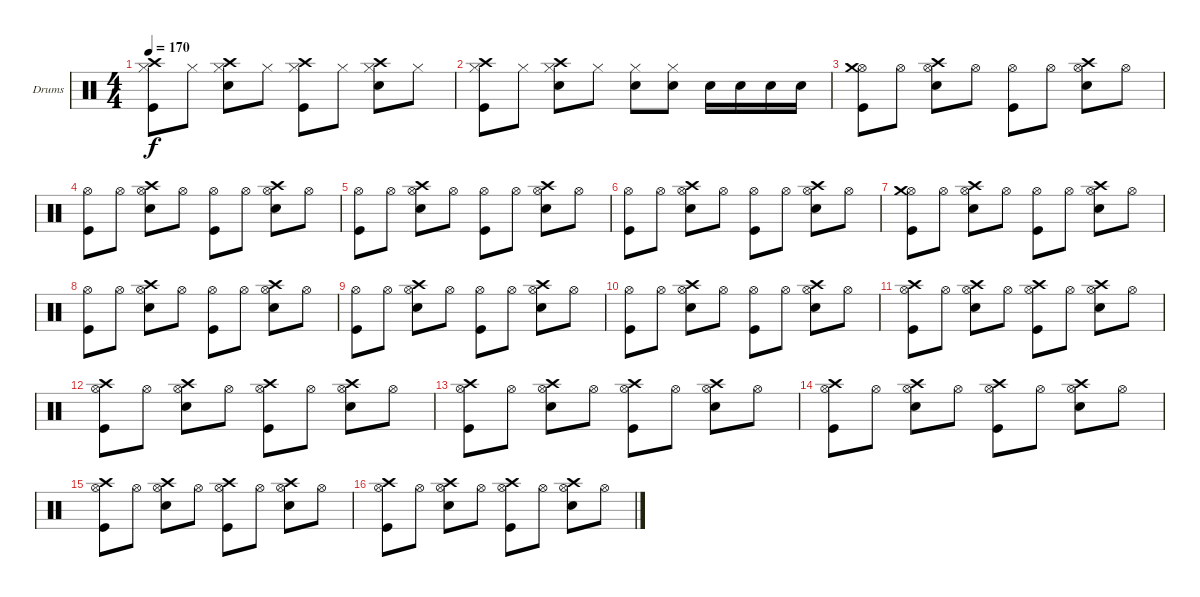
\defaultSystemsLayout 4
\bracketExtendMode groupsimilarinstruments
\firstSystemTrackNameOrientation horizontal
\otherSystemsTrackNameOrientation horizontal
\track ("Барабаны" "Drums") {instrument percussion}
\staff {score}
\articulation defaults
\ts (4 4)
\tempo 170
\clef neutral
\ks c
("Kick (hit)" "Hi-Hat (closed)" "Crash high (hit)").8{dy f} "Hi-Hat (closed)".8 ("Snare (hit) 2" "Hi-Hat (closed)" "Crash high (hit)").8 "Hi-Hat (closed)".8 ("Kick (hit)" "Hi-Hat (closed)" "Crash high (hit)").8 "Hi-Hat (closed)".8 ("Snare (hit) 2" "Hi-Hat (closed)" "Crash high (hit)").8 "Hi-Hat (closed)".8 |
("Kick (hit)" "Hi-Hat (closed)" "Crash high (hit)").8 "Hi-Hat (closed)".8 ("Snare (hit) 2" "Hi-Hat (closed)" "Crash high (hit)").8 "Hi-Hat (closed)".8 ("Snare (hit) 2" "Hi-Hat (closed)").8 ("Snare (hit) 2" "Hi-Hat (closed)").8 "Snare (hit) 2".16 "Snare (hit) 2".16 "Snare (hit) 2".16 "Snare (hit) 2".16 |
("Kick (hit)" "Hi-Hat (open)" "Crash medium (hit)").8 "Hi-Hat (open)".8 ("Snare (hit) 2" "Hi-Hat (open)" "Crash high (hit)").8 "Hi-Hat (open)".8 ("Kick (hit)" "Hi-Hat (open)").8 "Hi-Hat (open)".8 ("Snare (hit) 2" "Hi-Hat (open)" "Crash high (hit)").8 "Hi-Hat (open)".8 |
("Kick (hit)" "Hi-Hat (open)").8 "Hi-Hat (open)".8 ("Snare (hit) 2" "Hi-Hat (open)" "Crash high (hit)").8 "Hi-Hat (open)".8 ("Kick (hit)" "Hi-Hat (open)").8 "Hi-Hat (open)".8 ("Snare (hit) 2" "Hi-Hat (open)" "Crash high (hit)").8 "Hi-Hat (open)".8 |
("Kick (hit)" "Hi-Hat (open)").8 "Hi-Hat (open)".8 ("Snare (hit) 2" "Hi-Hat (open)" "Crash high (hit)").8 "Hi-Hat (open)".8 ("Kick (hit)" "Hi-Hat (open)").8 "Hi-Hat (open)".8 ("Snare (hit) 2" "Hi-Hat (open)" "Crash high (hit)").8 "Hi-Hat (open)".8 |
("Kick (hit)" "Hi-Hat (open)").8 "Hi-Hat (open)".8 ("Snare (hit) 2" "Hi-Hat (open)" "Crash high (hit)").8 "Hi-Hat (open)".8 ("Kick (hit)" "Hi-Hat (open)").8 "Hi-Hat (open)".8 ("Snare (hit) 2" "Hi-Hat (open)" "Crash high (hit)").8 "Hi-Hat (open)".8 |
("Kick (hit)" "Hi-Hat (open)" "Crash medium (hit)").8 "Hi-Hat (open)".8 ("Snare (hit) 2" "Hi-Hat (open)" "Crash high (hit)").8 "Hi-Hat (open)".8 ("Kick (hit)" "Hi-Hat (open)").8 "Hi-Hat (open)".8 ("Snare (hit) 2" "Hi-Hat (open)" "Crash high (hit)").8 "Hi-Hat (open)".8 |
("Kick (hit)" "Hi-Hat (open)").8 "Hi-Hat (open)".8 ("Snare (hit) 2" "Hi-Hat (open)" "Crash high (hit)").8 "Hi-Hat (open)".8 ("Kick (hit)" "Hi-Hat (open)").8 "Hi-Hat (open)".8 ("Snare (hit) 2" "Hi-Hat (open)" "Crash high (hit)").8 "Hi-Hat (open)".8 |
("Kick (hit)" "Hi-Hat (open)").8 "Hi-Hat (open)".8 ("Snare (hit) 2" "Hi-Hat (open)" "Crash high (hit)").8 "Hi-Hat (open)".8 ("Kick (hit)" "Hi-Hat (open)").8 "Hi-Hat (open)".8 ("Snare (hit) 2" "Hi-Hat (open)" "Crash high (hit)").8 "Hi-Hat (open)".8 |
("Kick (hit)" "Hi-Hat (open)").8 "Hi-Hat (open)".8 ("Snare (hit) 2" "Hi-Hat (open)" "Crash high (hit)").8 "Hi-Hat (open)".8 ("Kick (hit)" "Hi-Hat (open)").8 "Hi-Hat (open)".8 ("Snare (hit) 2" "Hi-Hat (open)" "Crash high (hit)").8 "Hi-Hat (open)".8 |
("Kick (hit)" "Hi-Hat (open)" "Crash high (hit)").8 "Hi-Hat (open)".8 ("Snare (hit) 2" "Hi-Hat (open)" "Crash high (hit)").8 "Hi-Hat (open)".8 ("Kick (hit)" "Hi-Hat (open)" "Crash high (hit)").8 "Hi-Hat (open)".8 ("Snare (hit) 2" "Hi-Hat (open)" "Crash high (hit)").8 "Hi-Hat (open)".8 |
("Kick (hit)" "Hi-Hat (open)" "Crash high (hit)").8 "Hi-Hat (open)".8 ("Snare (hit) 2" "Hi-Hat (open)" "Crash high (hit)").8 "Hi-Hat (open)".8 ("Kick (hit)" "Hi-Hat (open)" "Crash high (hit)").8 "Hi-Hat (open)".8 ("Snare (hit) 2" "Hi-Hat (open)" "Crash high (hit)").8 "Hi-Hat (open)".8 |
("Kick (hit)" "Hi-Hat (open)" "Crash high (hit)").8 "Hi-Hat (open)".8 ("Snare (hit) 2" "Hi-Hat (open)" "Crash high (hit)").8 "Hi-Hat (open)".8 ("Kick (hit)" "Hi-Hat (open)" "Crash high (hit)").8 "Hi-Hat (open)".8 ("Snare (hit) 2" "Hi-Hat (open)" "Crash high (hit)").8 "Hi-Hat (open)".8 |
("Kick (hit)" "Hi-Hat (open)" "Crash high (hit)").8 "Hi-Hat (open)".8 ("Snare (hit) 2" "Hi-Hat (open)" "Crash high (hit)").8 "Hi-Hat (open)".8 ("Kick (hit)" "Hi-Hat (open)" "Crash high (hit)").8 "Hi-Hat (open)".8 ("Snare (hit) 2" "Hi-Hat (open)" "Crash high (hit)").8 "Hi-Hat (open)".8 |
("Kick (hit)" "Hi-Hat (open)" "Crash high (hit)").8 "Hi-Hat (open)".8 ("Snare (hit) 2" "Hi-Hat (open)" "Crash high (hit)").8 "Hi-Hat (open)".8 ("Kick (hit)" "Hi-Hat (open)" "Crash high (hit)").8 "Hi-Hat (open)".8 ("Snare (hit) 2" "Hi-Hat (open)" "Crash high (hit)").8 "Hi-Hat (open)".8 |
("Kick (hit)" "Hi-Hat (open)" "Crash high (hit)").8 "Hi-Hat (open)".8 ("Snare (hit) 2" "Hi-Hat (open)" "Crash high (hit)").8 "Hi-Hat (open)".8 ("Kick (hit)" "Hi-Hat (open)" "Crash high (hit)").8 "Hi-Hat (open)".8 ("Snare (hit) 2" "Hi-Hat (open)" "Crash high (hit)").8 "Hi-Hat (open)".8
